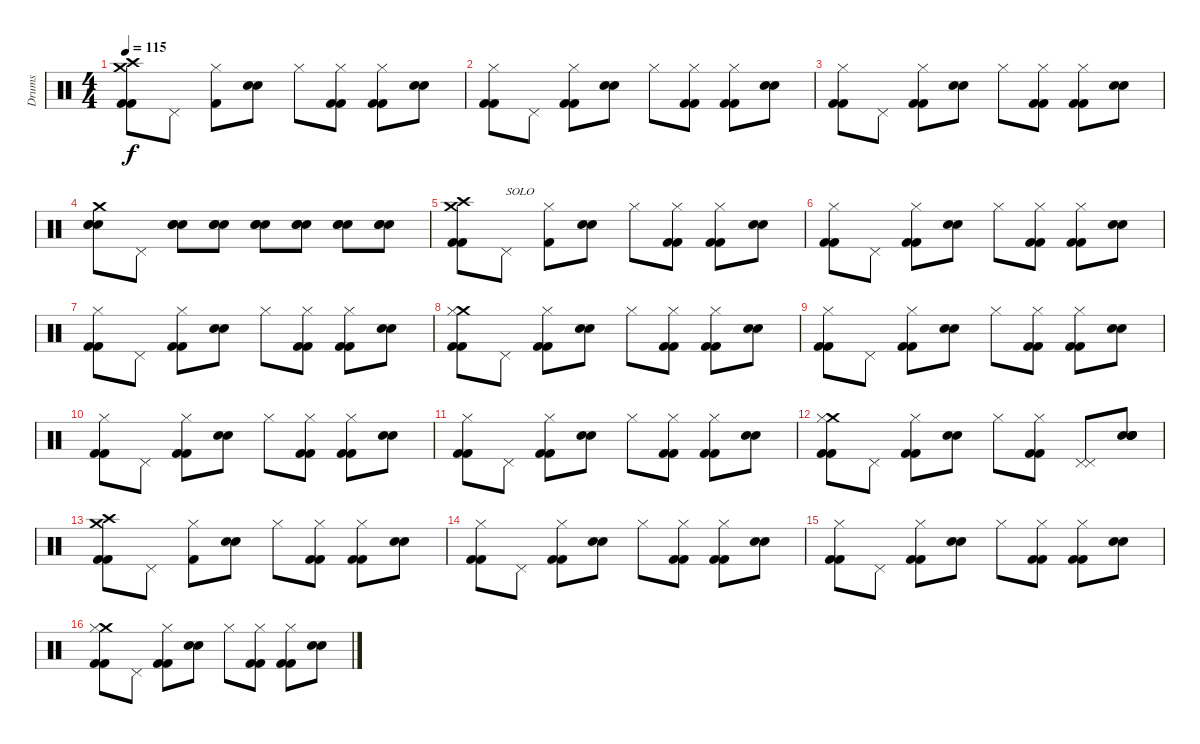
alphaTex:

\track ("Drums" "Drums") {instrument percussion}
\staff {score}
\articulation defaults
\ts (4 4)
\tempo 115
\clef neutral
\ks c
("Crash medium (hit)" "Crash high (hit)" "Kick (hit) 2" "Kick (hit) 2").8{dy f} "Pedal Hi-Hat (hit)".8 ("Hi-Hat (closed)" "Kick (hit) 2").8 ("Snare (hit) 2" "Snare (hit) 2").8 "Hi-Hat (closed)".8 ("Hi-Hat (closed)" "Kick (hit) 2" "Kick (hit) 2").8 ("Hi-Hat (closed)" "Kick (hit) 2" "Kick (hit) 2").8 ("Snare (hit) 2" "Snare (hit) 2").8 |
("Hi-Hat (closed)" "Kick (hit) 2" "Kick (hit) 2").8 "Pedal Hi-Hat (hit)".8 ("Hi-Hat (closed)" "Kick (hit) 2" "Kick (hit) 2").8 ("Snare (hit) 2" "Snare (hit) 2").8 "Hi-Hat (closed)".8 ("Hi-Hat (closed)" "Kick (hit) 2" "Kick (hit) 2").8 ("Hi-Hat (closed)" "Kick (hit) 2" "Kick (hit) 2").8 ("Snare (hit) 2" "Snare (hit) 2").8 |
("Hi-Hat (closed)" "Kick (hit) 2" "Kick (hit) 2").8 "Pedal Hi-Hat (hit)".8 ("Hi-Hat (closed)" "Kick (hit) 2" "Kick (hit) 2").8 ("Snare (hit) 2" "Snare (hit) 2").8 "Hi-Hat (closed)".8 ("Hi-Hat (closed)" "Kick (hit) 2" "Kick (hit) 2").8 ("Hi-Hat (closed)" "Kick (hit) 2" "Kick (hit) 2").8 ("Snare (hit) 2" "Snare (hit) 2").8 |
("Crash medium (hit)" "Snare (hit) 2" "Snare (hit) 2" "Snare (hit) 2").8 "Pedal Hi-Hat (hit)".8 ("Snare (hit) 2" "Snare (hit) 2" "Snare (hit) 2").8 ("Snare (hit) 2" "Snare (hit) 2" "Snare (hit) 2").8 ("Snare (hit) 2" "Snare (hit) 2" "Snare (hit) 2").8 ("Snare (hit) 2" "Snare (hit) 2" "Snare (hit) 2").8 ("Snare (hit) 2" "Snare (hit) 2" "Snare (hit) 2").8 ("Snare (hit) 2" "Snare (hit) 2" "Snare (hit) 2").8 |
("Crash medium (hit)" "Crash high (hit)" "Kick (hit) 2" "Kick (hit) 2").8 "Pedal Hi-Hat (hit)".8{txt "SOLO"} ("Hi-Hat (closed)" "Kick (hit) 2").8 ("Snare (hit) 2" "Snare (hit) 2").8 "Hi-Hat (closed)".8 ("Hi-Hat (closed)" "Kick (hit) 2" "Kick (hit) 2").8 ("Hi-Hat (closed)" "Kick (hit) 2" "Kick (hit) 2").8 ("Snare (hit) 2" "Snare (hit) 2").8 |
("Hi-Hat (closed)" "Kick (hit) 2" "Kick (hit) 2").8 "Pedal Hi-Hat (hit)".8 ("Hi-Hat (closed)" "Kick (hit) 2" "Kick (hit) 2").8 ("Snare (hit) 2" "Snare (hit) 2").8 "Hi-Hat (closed)".8 ("Hi-Hat (closed)" "Kick (hit) 2" "Kick (hit) 2").8 ("Hi-Hat (closed)" "Kick (hit) 2" "Kick (hit) 2").8 ("Snare (hit) 2" "Snare (hit) 2").8 |
("Hi-Hat (closed)" "Kick (hit) 2" "Kick (hit) 2").8 "Pedal Hi-Hat (hit)".8 ("Hi-Hat (closed)" "Kick (hit) 2" "Kick (hit) 2").8 ("Snare (hit) 2" "Snare (hit) 2").8 "Hi-Hat (closed)".8 ("Hi-Hat (closed)" "Kick (hit) 2" "Kick (hit) 2").8 ("Hi-Hat (closed)" "Kick (hit) 2" "Kick (hit) 2").8 ("Snare (hit) 2" "Snare (hit) 2").8 |
("Crash medium (hit)" "Hi-Hat (closed)" "Kick (hit) 2" "Kick (hit) 2").8 "Pedal Hi-Hat (hit)".8 ("Hi-Hat (closed)" "Kick (hit) 2" "Kick (hit) 2").8 ("Snare (hit) 2" "Snare (hit) 2").8 "Hi-Hat (closed)".8 ("Hi-Hat (closed)" "Kick (hit) 2" "Kick (hit) 2").8 ("Hi-Hat (closed)" "Kick (hit) 2" "Kick (hit) 2").8 ("Snare (hit) 2" "Snare (hit) 2").8 |
("Hi-Hat (closed)" "Kick (hit) 2" "Kick (hit) 2").8 "Pedal Hi-Hat (hit)".8 ("Hi-Hat (closed)" "Kick (hit) 2" "Kick (hit) 2").8 ("Snare (hit) 2" "Snare (hit) 2").8 "Hi-Hat (closed)".8 ("Hi-Hat (closed)" "Kick (hit) 2" "Kick (hit) 2").8 ("Hi-Hat (closed)" "Kick (hit) 2" "Kick (hit) 2").8 ("Snare (hit) 2" "Snare (hit) 2").8 |
("Hi-Hat (closed)" "Kick (hit) 2" "Kick (hit) 2").8 "Pedal Hi-Hat (hit)".8 ("Hi-Hat (closed)" "Kick (hit) 2" "Kick (hit) 2").8 ("Snare (hit) 2" "Snare (hit) 2").8 "Hi-Hat (closed)".8 ("Hi-Hat (closed)" "Kick (hit) 2" "Kick (hit) 2").8 ("Hi-Hat (closed)" "Kick (hit) 2" "Kick (hit) 2").8 ("Snare (hit) 2" "Snare (hit) 2").8 |
("Hi-Hat (closed)" "Kick (hit) 2" "Kick (hit) 2").8 "Pedal Hi-Hat (hit)".8 ("Hi-Hat (closed)" "Kick (hit) 2" "Kick (hit) 2").8 ("Snare (hit) 2" "Snare (hit) 2").8 "Hi-Hat (closed)".8 ("Hi-Hat (closed)" "Kick (hit) 2" "Kick (hit) 2").8 ("Hi-Hat (closed)" "Kick (hit) 2" "Kick (hit) 2").8 ("Snare (hit) 2" "Snare (hit) 2").8 |
("Crash medium (hit)" "Hi-Hat (closed)" "Kick (hit) 2" "Kick (hit) 2").8 "Pedal Hi-Hat (hit)".8 ("Hi-Hat (closed)" "Kick (hit) 2" "Kick (hit) 2").8 ("Snare (hit) 2" "Snare (hit) 2").8 "Hi-Hat (closed)".8 ("Hi-Hat (closed)" "Kick (hit) 2" "Kick (hit) 2").8 ("Pedal Hi-Hat (hit)" "Pedal Hi-Hat (hit)").8 ("Snare (hit) 2" "Snare (hit) 2" "Snare (hit) 2" "Snare (hit) 2").8 |
("Crash medium (hit)" "Crash high (hit)" "Kick (hit) 2" "Kick (hit) 2").8 "Pedal Hi-Hat (hit)".8 ("Hi-Hat (closed)" "Kick (hit) 2").8 ("Snare (hit) 2" "Snare (hit) 2").8 "Hi-Hat (closed)".8 ("Hi-Hat (closed)" "Kick (hit) 2" "Kick (hit) 2").8 ("Hi-Hat (closed)" "Kick (hit) 2" "Kick (hit) 2").8 ("Snare (hit) 2" "Snare (hit) 2").8 |
("Hi-Hat (closed)" "Kick (hit) 2" "Kick (hit) 2").8 "Pedal Hi-Hat (hit)".8 ("Hi-Hat (closed)" "Kick (hit) 2" "Kick (hit) 2").8 ("Snare (hit) 2" "Snare (hit) 2").8 "Hi-Hat (closed)".8 ("Hi-Hat (closed)" "Kick (hit) 2" "Kick (hit) 2").8 ("Hi-Hat (closed)" "Kick (hit) 2" "Kick (hit) 2").8 ("Snare (hit) 2" "Snare (hit) 2").8 |
("Hi-Hat (closed)" "Kick (hit) 2" "Kick (hit) 2").8 "Pedal Hi-Hat (hit)".8 ("Hi-Hat (closed)" "Kick (hit) 2" "Kick (hit) 2").8 ("Snare (hit) 2" "Snare (hit) 2").8 "Hi-Hat (closed)".8 ("Hi-Hat (closed)" "Kick (hit) 2" "Kick (hit) 2").8 ("Hi-Hat (closed)" "Kick (hit) 2" "Kick (hit) 2").8 ("Snare (hit) 2" "Snare (hit) 2").8 |
("Crash medium (hit)" "Hi-Hat (closed)" "Kick (hit) 2" "Kick (hit) 2").8 "Pedal Hi-Hat (hit)".8 ("Hi-Hat (closed)" "Kick (hit) 2" "Kick (hit) 2").8 ("Snare (hit) 2" "Snare (hit) 2").8 "Hi-Hat (closed)".8 ("Hi-Hat (closed)" "Kick (hit) 2" "Kick (hit) 2").8 ("Hi-Hat (closed)" "Kick (hit) 2" "Kick (hit) 2").8 ("Snare (hit) 2" "Snare (hit) 2").8
